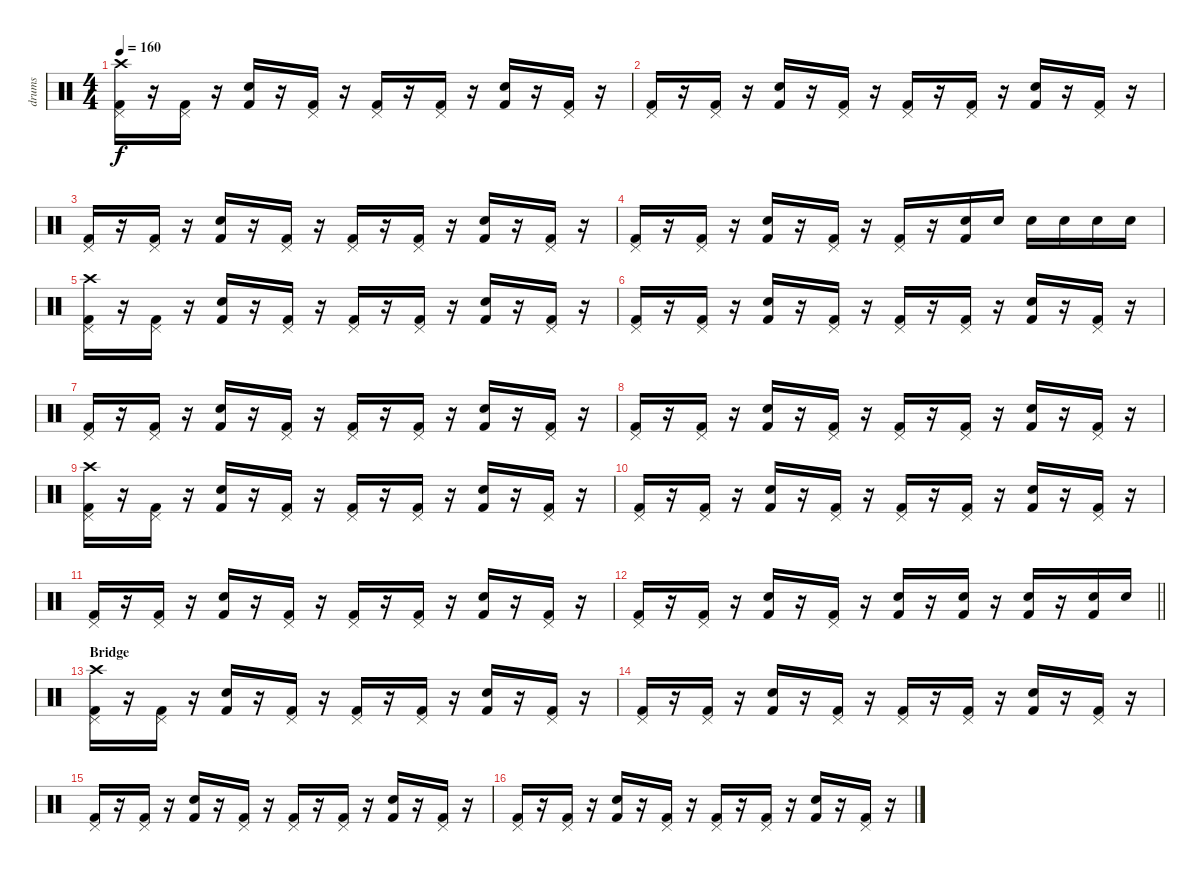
\track ("drums" "drums") {instrument percussion}
\staff {score}
\articulation defaults
\ts (4 4)
\tempo 160
\clef neutral
\ks c
("Crash high (hit)" "Pedal Hi-Hat (hit)" "Kick (hit) 2").16{dy f} r.16 ("Pedal Hi-Hat (hit)" "Kick (hit) 2").16 r.16 ("Snare (hit) 2" "Kick (hit) 2").16 r.16 ("Pedal Hi-Hat (hit)" "Kick (hit) 2").16 r.16 ("Pedal Hi-Hat (hit)" "Kick (hit) 2").16 r.16 ("Pedal Hi-Hat (hit)" "Kick (hit) 2").16 r.16 ("Snare (hit) 2" "Kick (hit) 2").16 r.16 ("Pedal Hi-Hat (hit)" "Kick (hit) 2").16 r.16 |
("Pedal Hi-Hat (hit)" "Kick (hit) 2").16 r.16 ("Pedal Hi-Hat (hit)" "Kick (hit) 2").16 r.16 ("Snare (hit) 2" "Kick (hit) 2").16 r.16 ("Pedal Hi-Hat (hit)" "Kick (hit) 2").16 r.16 ("Pedal Hi-Hat (hit)" "Kick (hit) 2").16 r.16 ("Pedal Hi-Hat (hit)" "Kick (hit) 2").16 r.16 ("Snare (hit) 2" "Kick (hit) 2").16 r.16 ("Pedal Hi-Hat (hit)" "Kick (hit) 2").16 r.16 |
("Pedal Hi-Hat (hit)" "Kick (hit) 2").16 r.16 ("Pedal Hi-Hat (hit)" "Kick (hit) 2").16 r.16 ("Snare (hit) 2" "Kick (hit) 2").16 r.16 ("Pedal Hi-Hat (hit)" "Kick (hit) 2").16 r.16 ("Pedal Hi-Hat (hit)" "Kick (hit) 2").16 r.16 ("Pedal Hi-Hat (hit)" "Kick (hit) 2").16 r.16 ("Snare (hit) 2" "Kick (hit) 2").16 r.16 ("Pedal Hi-Hat (hit)" "Kick (hit) 2").16 r.16 |
("Pedal Hi-Hat (hit)" "Kick (hit) 2").16 r.16 ("Pedal Hi-Hat (hit)" "Kick (hit) 2").16 r.16 ("Snare (hit) 2" "Kick (hit) 2").16 r.16 ("Pedal Hi-Hat (hit)" "Kick (hit) 2").16 r.16 ("Pedal Hi-Hat (hit)" "Kick (hit) 2").16 r.16 ("Electric Snare (hit)" "Kick (hit) 2").16 "Electric Snare (hit)".16 "Snare (hit) 2".16 "Snare (hit) 2".16 "Snare (hit) 2".16 "Snare (hit) 2".16 |
("Crash high (hit)" "Pedal Hi-Hat (hit)" "Kick (hit) 2").16 r.16 ("Pedal Hi-Hat (hit)" "Kick (hit) 2").16 r.16 ("Snare (hit) 2" "Kick (hit) 2").16 r.16 ("Pedal Hi-Hat (hit)" "Kick (hit) 2").16 r.16 ("Pedal Hi-Hat (hit)" "Kick (hit) 2").16 r.16 ("Pedal Hi-Hat (hit)" "Kick (hit) 2").16 r.16 ("Snare (hit) 2" "Kick (hit) 2").16 r.16 ("Pedal Hi-Hat (hit)" "Kick (hit) 2").16 r.16 |
("Pedal Hi-Hat (hit)" "Kick (hit) 2").16 r.16 ("Pedal Hi-Hat (hit)" "Kick (hit) 2").16 r.16 ("Snare (hit) 2" "Kick (hit) 2").16 r.16 ("Pedal Hi-Hat (hit)" "Kick (hit) 2").16 r.16 ("Pedal Hi-Hat (hit)" "Kick (hit) 2").16 r.16 ("Pedal Hi-Hat (hit)" "Kick (hit) 2").16 r.16 ("Snare (hit) 2" "Kick (hit) 2").16 r.16 ("Pedal Hi-Hat (hit)" "Kick (hit) 2").16 r.16 |
("Pedal Hi-Hat (hit)" "Kick (hit) 2").16 r.16 ("Pedal Hi-Hat (hit)" "Kick (hit) 2").16 r.16 ("Snare (hit) 2" "Kick (hit) 2").16 r.16 ("Pedal Hi-Hat (hit)" "Kick (hit) 2").16 r.16 ("Pedal Hi-Hat (hit)" "Kick (hit) 2").16 r.16 ("Pedal Hi-Hat (hit)" "Kick (hit) 2").16 r.16 ("Snare (hit) 2" "Kick (hit) 2").16 r.16 ("Pedal Hi-Hat (hit)" "Kick (hit) 2").16 r.16 |
("Pedal Hi-Hat (hit)" "Kick (hit) 2").16 r.16 ("Pedal Hi-Hat (hit)" "Kick (hit) 2").16 r.16 ("Snare (hit) 2" "Kick (hit) 2").16 r.16 ("Pedal Hi-Hat (hit)" "Kick (hit) 2").16 r.16 ("Pedal Hi-Hat (hit)" "Kick (hit) 2").16 r.16 ("Pedal Hi-Hat (hit)" "Kick (hit) 2").16 r.16 ("Snare (hit) 2" "Kick (hit) 2").16 r.16 ("Pedal Hi-Hat (hit)" "Kick (hit) 2").16 r.16 |
("Crash high (hit)" "Pedal Hi-Hat (hit)" "Kick (hit) 2").16 r.16 ("Pedal Hi-Hat (hit)" "Kick (hit) 2").16 r.16 ("Snare (hit) 2" "Kick (hit) 2").16 r.16 ("Pedal Hi-Hat (hit)" "Kick (hit) 2").16 r.16 ("Pedal Hi-Hat (hit)" "Kick (hit) 2").16 r.16 ("Pedal Hi-Hat (hit)" "Kick (hit) 2").16 r.16 ("Snare (hit) 2" "Kick (hit) 2").16 r.16 ("Pedal Hi-Hat (hit)" "Kick (hit) 2").16 r.16 |
("Pedal Hi-Hat (hit)" "Kick (hit) 2").16 r.16 ("Pedal Hi-Hat (hit)" "Kick (hit) 2").16 r.16 ("Snare (hit) 2" "Kick (hit) 2").16 r.16 ("Pedal Hi-Hat (hit)" "Kick (hit) 2").16 r.16 ("Pedal Hi-Hat (hit)" "Kick (hit) 2").16 r.16 ("Pedal Hi-Hat (hit)" "Kick (hit) 2").16 r.16 ("Snare (hit) 2" "Kick (hit) 2").16 r.16 ("Pedal Hi-Hat (hit)" "Kick (hit) 2").16 r.16 |
("Pedal Hi-Hat (hit)" "Kick (hit) 2").16 r.16 ("Pedal Hi-Hat (hit)" "Kick (hit) 2").16 r.16 ("Snare (hit) 2" "Kick (hit) 2").16 r.16 ("Pedal Hi-Hat (hit)" "Kick (hit) 2").16 r.16 ("Pedal Hi-Hat (hit)" "Kick (hit) 2").16 r.16 ("Pedal Hi-Hat (hit)" "Kick (hit) 2").16 r.16 ("Snare (hit) 2" "Kick (hit) 2").16 r.16 ("Pedal Hi-Hat (hit)" "Kick (hit) 2").16 r.16 |
\barLineRight lightlight
("Pedal Hi-Hat (hit)" "Kick (hit) 2").16 r.16 ("Pedal Hi-Hat (hit)" "Kick (hit) 2").16 r.16 ("Snare (hit) 2" "Kick (hit) 2").16 r.16 ("Pedal Hi-Hat (hit)" "Kick (hit) 2").16 r.16 ("Electric Snare (hit)" "Kick (hit) 2").16 r.16 ("Electric Snare (hit)" "Kick (hit) 2").16 r.16 ("Electric Snare (hit)" "Kick (hit) 2").16 r.16 ("Electric Snare (hit)" "Kick (hit) 2").16 "Electric Snare (hit)".16 |
\section ("" "Bridge")
("Crash high (hit)" "Pedal Hi-Hat (hit)" "Kick (hit) 2").16 r.16 ("Pedal Hi-Hat (hit)" "Kick (hit) 2").16 r.16 ("Snare (hit) 2" "Kick (hit) 2").16 r.16 ("Pedal Hi-Hat (hit)" "Kick (hit) 2").16 r.16 ("Pedal Hi-Hat (hit)" "Kick (hit) 2").16 r.16 ("Pedal Hi-Hat (hit)" "Kick (hit) 2").16 r.16 ("Snare (hit) 2" "Kick (hit) 2").16 r.16 ("Pedal Hi-Hat (hit)" "Kick (hit) 2").16 r.16 |
("Pedal Hi-Hat (hit)" "Kick (hit) 2").16 r.16 ("Pedal Hi-Hat (hit)" "Kick (hit) 2").16 r.16 ("Snare (hit) 2" "Kick (hit) 2").16 r.16 ("Pedal Hi-Hat (hit)" "Kick (hit) 2").16 r.16 ("Pedal Hi-Hat (hit)" "Kick (hit) 2").16 r.16 ("Pedal Hi-Hat (hit)" "Kick (hit) 2").16 r.16 ("Snare (hit) 2" "Kick (hit) 2").16 r.16 ("Pedal Hi-Hat (hit)" "Kick (hit) 2").16 r.16 |
("Pedal Hi-Hat (hit)" "Kick (hit) 2").16 r.16 ("Pedal Hi-Hat (hit)" "Kick (hit) 2").16 r.16 ("Snare (hit) 2" "Kick (hit) 2").16 r.16 ("Pedal Hi-Hat (hit)" "Kick (hit) 2").16 r.16 ("Pedal Hi-Hat (hit)" "Kick (hit) 2").16 r.16 ("Pedal Hi-Hat (hit)" "Kick (hit) 2").16 r.16 ("Snare (hit) 2" "Kick (hit) 2").16 r.16 ("Pedal Hi-Hat (hit)" "Kick (hit) 2").16 r.16 |
("Pedal Hi-Hat (hit)" "Kick (hit) 2").16 r.16 ("Pedal Hi-Hat (hit)" "Kick (hit) 2").16 r.16 ("Snare (hit) 2" "Kick (hit) 2").16 r.16 ("Pedal Hi-Hat (hit)" "Kick (hit) 2").16 r.16 ("Pedal Hi-Hat (hit)" "Kick (hit) 2").16 r.16 ("Pedal Hi-Hat (hit)" "Kick (hit) 2").16 r.16 ("Snare (hit) 2" "Kick (hit) 2").16 r.16 ("Pedal Hi-Hat (hit)" "Kick (hit) 2").16 r.16
